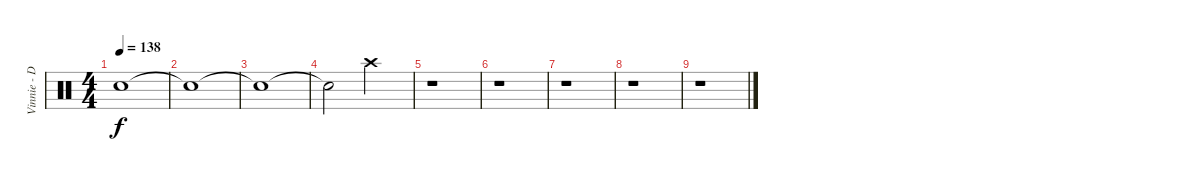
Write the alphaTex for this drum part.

\track ("Vinnie - Drums" "Vinnie - D") {instrument percussion}
\staff {score}
\articulation defaults
\ts (4 4)
\tempo 138
\clef neutral
\ks c "Snare (hit)"{t}.1{dy f}
|
"Snare (hit)"{t}.1 |
"Snare (hit)"{t}.1 |
"Snare (hit)"{t}.2 "Crash high (hit)".2 |
r.1 |
r.1 |
r.1 |
r.1 |
r.1
